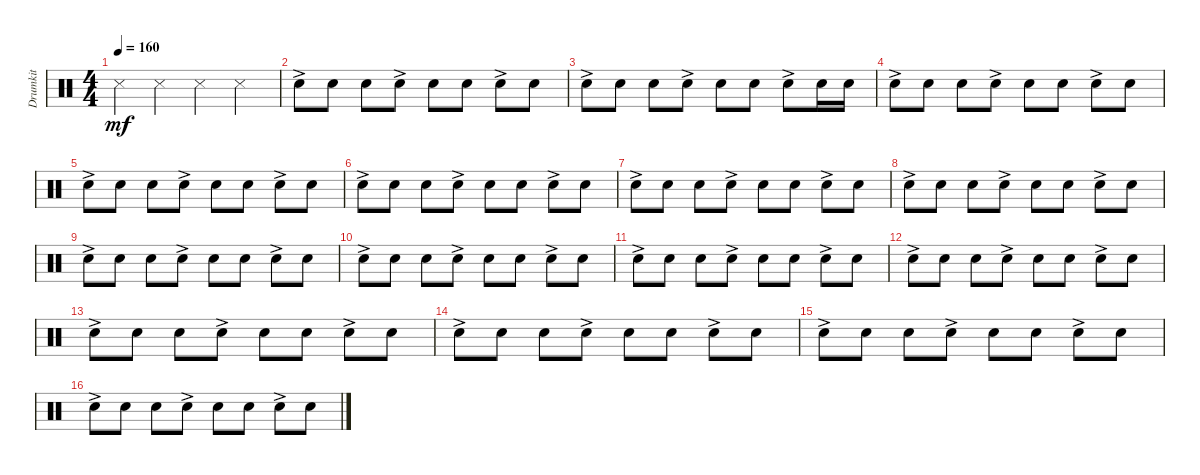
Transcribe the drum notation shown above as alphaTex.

\track ("Drumkit" "Drumkit") {instrument percussion}
\staff {score}
\articulation defaults
\ts (4 4)
\tempo 160
\clef neutral
\ks c "Snare (side stick) 3".4{dy mf} "Snare (side stick) 3".4 "Snare (side stick) 3".4 "Snare (side stick) 3".4
|
"Snare (hit) 2"{ac}.8 "Snare (hit) 2".8 "Snare (hit) 2".8 "Snare (hit) 2"{ac}.8 "Snare (hit) 2".8 "Snare (hit) 2".8 "Snare (hit) 2"{ac}.8 "Snare (hit) 2".8 |
"Snare (hit) 2"{ac}.8 "Snare (hit) 2".8 "Snare (hit) 2".8 "Snare (hit) 2"{ac}.8 "Snare (hit) 2".8 "Snare (hit) 2".8 "Snare (hit) 2"{ac}.8 "Snare (hit) 2".16 "Snare (hit) 2".16 |
"Snare (hit) 2"{ac}.8 "Snare (hit) 2".8 "Snare (hit) 2".8 "Snare (hit) 2"{ac}.8 "Snare (hit) 2".8 "Snare (hit) 2".8 "Snare (hit) 2"{ac}.8 "Snare (hit) 2".8 |
"Snare (hit) 2"{ac}.8 "Snare (hit) 2".8 "Snare (hit) 2".8 "Snare (hit) 2"{ac}.8 "Snare (hit) 2".8 "Snare (hit) 2".8 "Snare (hit) 2"{ac}.8 "Snare (hit) 2".8 |
"Snare (hit) 2"{ac}.8 "Snare (hit) 2".8 "Snare (hit) 2".8 "Snare (hit) 2"{ac}.8 "Snare (hit) 2".8 "Snare (hit) 2".8 "Snare (hit) 2"{ac}.8 "Snare (hit) 2".8 |
"Snare (hit) 2"{ac}.8 "Snare (hit) 2".8 "Snare (hit) 2".8 "Snare (hit) 2"{ac}.8 "Snare (hit) 2".8 "Snare (hit) 2".8 "Snare (hit) 2"{ac}.8 "Snare (hit) 2".8 |
"Snare (hit) 2"{ac}.8 "Snare (hit) 2".8 "Snare (hit) 2".8 "Snare (hit) 2"{ac}.8 "Snare (hit) 2".8 "Snare (hit) 2".8 "Snare (hit) 2"{ac}.8 "Snare (hit) 2".8 |
"Snare (hit) 2"{ac}.8 "Snare (hit) 2".8 "Snare (hit) 2".8 "Snare (hit) 2"{ac}.8 "Snare (hit) 2".8 "Snare (hit) 2".8 "Snare (hit) 2"{ac}.8 "Snare (hit) 2".8 |
"Snare (hit) 2"{ac}.8 "Snare (hit) 2".8 "Snare (hit) 2".8 "Snare (hit) 2"{ac}.8 "Snare (hit) 2".8 "Snare (hit) 2".8 "Snare (hit) 2"{ac}.8 "Snare (hit) 2".8 |
"Snare (hit) 2"{ac}.8 "Snare (hit) 2".8 "Snare (hit) 2".8 "Snare (hit) 2"{ac}.8 "Snare (hit) 2".8 "Snare (hit) 2".8 "Snare (hit) 2"{ac}.8 "Snare (hit) 2".8 |
"Snare (hit) 2"{ac}.8 "Snare (hit) 2".8 "Snare (hit) 2".8 "Snare (hit) 2"{ac}.8 "Snare (hit) 2".8 "Snare (hit) 2".8 "Snare (hit) 2"{ac}.8 "Snare (hit) 2".8 |
"Snare (hit) 2"{ac}.8 "Snare (hit) 2".8 "Snare (hit) 2".8 "Snare (hit) 2"{ac}.8 "Snare (hit) 2".8 "Snare (hit) 2".8 "Snare (hit) 2"{ac}.8 "Snare (hit) 2".8 |
"Snare (hit) 2"{ac}.8 "Snare (hit) 2".8 "Snare (hit) 2".8 "Snare (hit) 2"{ac}.8 "Snare (hit) 2".8 "Snare (hit) 2".8 "Snare (hit) 2"{ac}.8 "Snare (hit) 2".8 |
"Snare (hit) 2"{ac}.8 "Snare (hit) 2".8 "Snare (hit) 2".8 "Snare (hit) 2"{ac}.8 "Snare (hit) 2".8 "Snare (hit) 2".8 "Snare (hit) 2"{ac}.8 "Snare (hit) 2".8 |
"Snare (hit) 2"{ac}.8 "Snare (hit) 2".8 "Snare (hit) 2".8 "Snare (hit) 2"{ac}.8 "Snare (hit) 2".8 "Snare (hit) 2".8 "Snare (hit) 2"{ac}.8 "Snare (hit) 2".8
